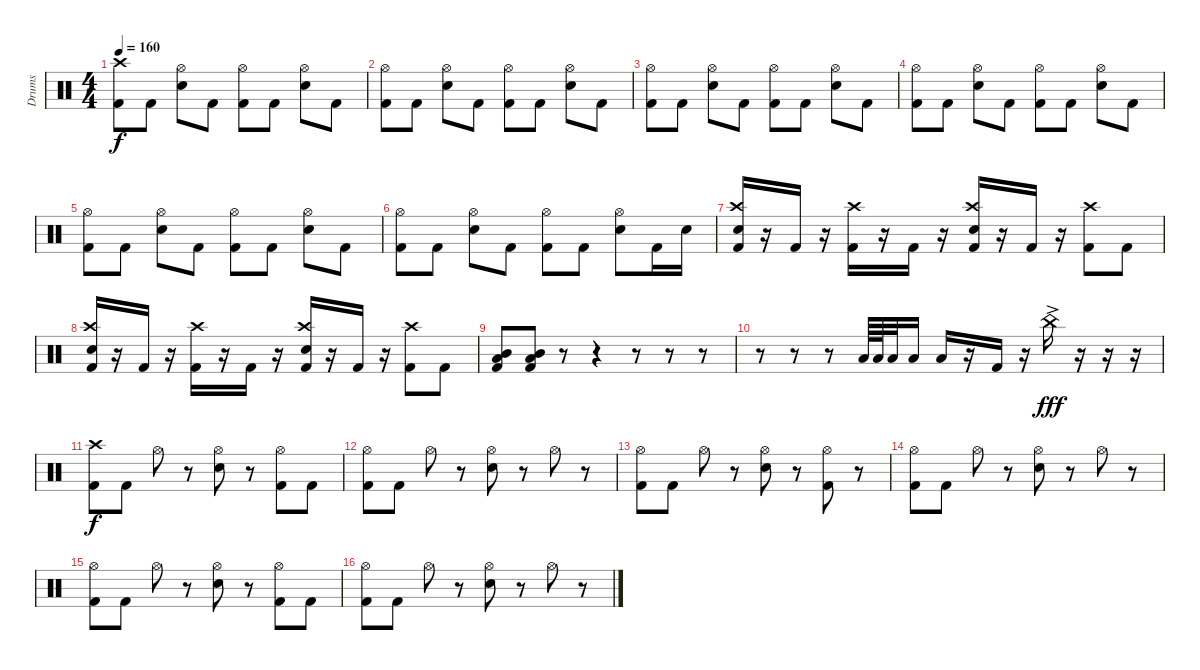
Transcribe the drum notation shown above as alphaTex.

\track ("Drums" "Drums") {instrument percussion}
\staff {score}
\articulation defaults
\ts (4 4)
\tempo 160
\clef neutral
\ks c
("Kick (hit) 2" "Crash high (hit)").8{dy f} "Kick (hit) 2".8 ("Electric Snare (hit)" "Hi-Hat (open)").8 "Kick (hit) 2".8 ("Kick (hit) 2" "Hi-Hat (open)").8 "Kick (hit) 2".8 ("Electric Snare (hit)" "Hi-Hat (open)").8 "Kick (hit) 2".8 |
("Kick (hit) 2" "Hi-Hat (open)").8 "Kick (hit) 2".8 ("Electric Snare (hit)" "Hi-Hat (open)").8 "Kick (hit) 2".8 ("Kick (hit) 2" "Hi-Hat (open)").8 "Kick (hit) 2".8 ("Electric Snare (hit)" "Hi-Hat (open)").8 "Kick (hit) 2".8 |
("Kick (hit) 2" "Hi-Hat (open)").8 "Kick (hit) 2".8 ("Electric Snare (hit)" "Hi-Hat (open)").8 "Kick (hit) 2".8 ("Kick (hit) 2" "Hi-Hat (open)").8 "Kick (hit) 2".8 ("Electric Snare (hit)" "Hi-Hat (open)").8 "Kick (hit) 2".8 |
("Kick (hit) 2" "Hi-Hat (open)").8 "Kick (hit) 2".8 ("Electric Snare (hit)" "Hi-Hat (open)").8 "Kick (hit) 2".8 ("Kick (hit) 2" "Hi-Hat (open)").8 "Kick (hit) 2".8 ("Electric Snare (hit)" "Hi-Hat (open)").8 "Kick (hit) 2".8 |
("Kick (hit) 2" "Hi-Hat (open)").8 "Kick (hit) 2".8 ("Electric Snare (hit)" "Hi-Hat (open)").8 "Kick (hit) 2".8 ("Kick (hit) 2" "Hi-Hat (open)").8 "Kick (hit) 2".8 ("Electric Snare (hit)" "Hi-Hat (open)").8 "Kick (hit) 2".8 |
("Kick (hit) 2" "Hi-Hat (open)").8 "Kick (hit) 2".8 ("Electric Snare (hit)" "Hi-Hat (open)").8 "Kick (hit) 2".8 ("Kick (hit) 2" "Hi-Hat (open)").8 "Kick (hit) 2".8 ("Electric Snare (hit)" "Hi-Hat (open)").8 "Kick (hit) 2".16 "Electric Snare (hit)".16 |
("Kick (hit) 2" "Electric Snare (hit)" "Crash high (hit)").16 r.16 "Kick (hit) 2".16 r.16 ("Kick (hit) 2" "Crash high (hit)").16 r.16 "Kick (hit) 2".16 r.16 ("Kick (hit) 2" "Electric Snare (hit)" "Crash high (hit)").16 r.16 "Kick (hit) 2".16 r.16 ("Kick (hit) 2" "Crash high (hit)").8 "Kick (hit) 2".8 |
("Kick (hit) 2" "Electric Snare (hit)" "Crash high (hit)").16 r.16 "Kick (hit) 2".16 r.16 ("Kick (hit) 2" "Crash high (hit)").16 r.16 "Kick (hit) 2".16 r.16 ("Kick (hit) 2" "Electric Snare (hit)" "Crash high (hit)").16 r.16 "Kick (hit) 2".16 r.16 ("Kick (hit) 2" "Crash high (hit)").8 "Kick (hit) 2".8 |
("Kick (hit) 2" "Low Floor Tom (hit)" "Mid Tom (hit)").8 ("Kick (hit) 2" "Low Floor Tom (hit)" "Mid Tom (hit)").8 r.8 r.4 r.8 r.8 r.8 |
r.8 r.8 r.8 "Low Floor Tom (hit)".64 "Low Floor Tom (hit)".64 "Low Floor Tom (hit)".32 "Low Floor Tom (hit)".16 "Low Floor Tom (hit)".16 r.16 "Kick (hit) 2".16 r.16 "China (hit)"{ac}.16{dy fff} r.16 r.16 r.16 |
("Kick (hit) 2" "Crash high (hit)").8{dy f} "Kick (hit) 2".8 "Hi-Hat (open)".8 r.8 ("Electric Snare (hit)" "Hi-Hat (open)").8 r.8 ("Kick (hit) 2" "Hi-Hat (open)").8 "Kick (hit) 2".8 |
("Kick (hit) 2" "Hi-Hat (open)").8 "Kick (hit) 2".8 "Hi-Hat (open)".8 r.8 ("Electric Snare (hit)" "Hi-Hat (open)").8 r.8 "Hi-Hat (open)".8 r.8 |
("Kick (hit) 2" "Hi-Hat (open)").8 "Kick (hit) 2".8 "Hi-Hat (open)".8 r.8 ("Electric Snare (hit)" "Hi-Hat (open)").8 r.8 ("Kick (hit) 2" "Hi-Hat (open)").8 r.8 |
("Kick (hit) 2" "Hi-Hat (open)").8 "Kick (hit) 2".8 "Hi-Hat (open)".8 r.8 ("Electric Snare (hit)" "Hi-Hat (open)").8 r.8 "Hi-Hat (open)".8 r.8 |
("Kick (hit) 2" "Hi-Hat (open)").8 "Kick (hit) 2".8 "Hi-Hat (open)".8 r.8 ("Electric Snare (hit)" "Hi-Hat (open)").8 r.8 ("Kick (hit) 2" "Hi-Hat (open)").8 "Kick (hit) 2".8 |
("Kick (hit) 2" "Hi-Hat (open)").8 "Kick (hit) 2".8 "Hi-Hat (open)".8 r.8 ("Electric Snare (hit)" "Hi-Hat (open)").8 r.8 "Hi-Hat (open)".8 r.8
